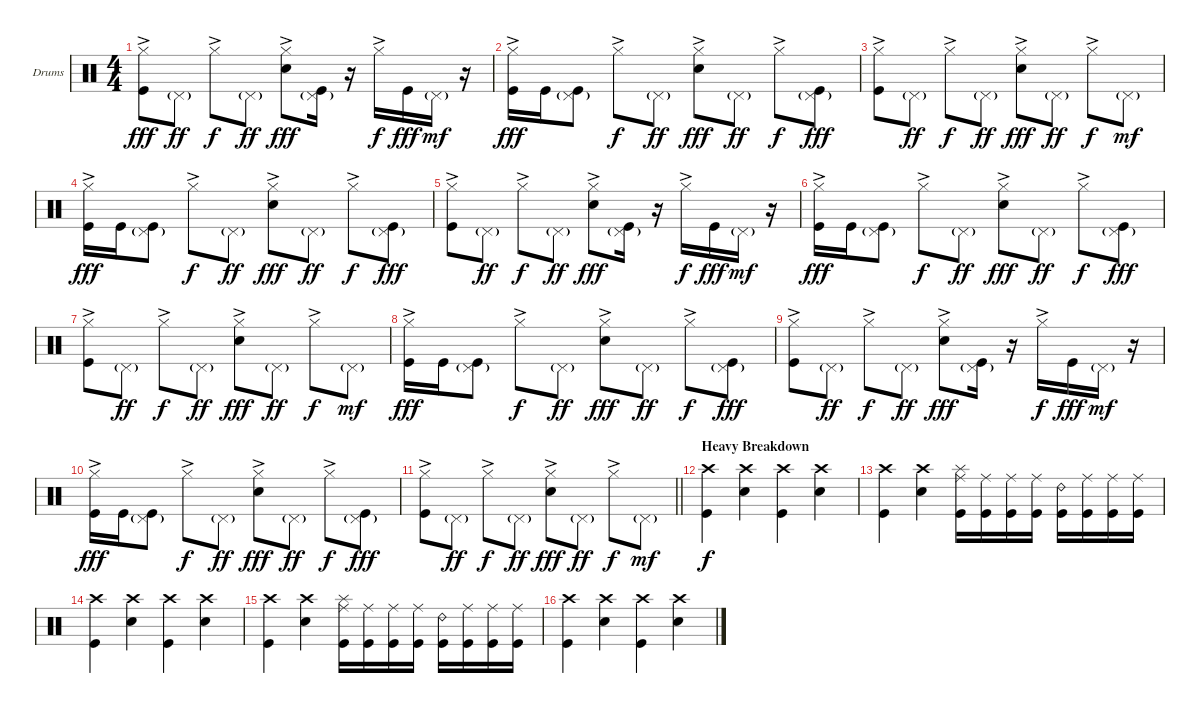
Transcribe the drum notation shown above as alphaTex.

\bracketExtendMode groupsimilarinstruments
\firstSystemTrackNameOrientation horizontal
\otherSystemsTrackNameOrientation horizontal
\track ("Percussion" "Drums") {instrument percussion}
\staff {score}
\articulation defaults
\ts (4 4)
\tempo (142 hide)
\clef neutral
\ks c
("Hi-Hat (closed)"{ac} "Kick (hit)").8{dy fff} "Pedal Hi-Hat (hit)"{g}.8{dy ff} "Hi-Hat (closed)"{ac}.8{dy f} "Pedal Hi-Hat (hit)"{g}.8{dy ff} ("Hi-Hat (closed)"{ac} "Snare (hit) 2").8{dy fff} ("Pedal Hi-Hat (hit)"{g} "Kick (hit)").16 r.16 "Hi-Hat (closed)"{ac}.16{dy f} "Kick (hit)".16{dy fff} "Pedal Hi-Hat (hit)"{g}.16{dy mf} r.16 |
("Hi-Hat (closed)"{ac} "Kick (hit)").16{dy fff} "Kick (hit)".16 ("Pedal Hi-Hat (hit)"{g} "Kick (hit)").8 "Hi-Hat (closed)"{ac}.8{dy f} "Pedal Hi-Hat (hit)"{g}.8{dy ff} ("Hi-Hat (closed)"{ac} "Snare (hit) 2").8{dy fff} "Pedal Hi-Hat (hit)"{g}.8{dy ff} "Hi-Hat (closed)"{ac}.8{dy f} ("Pedal Hi-Hat (hit)"{g} "Kick (hit)").8{dy fff} |
("Hi-Hat (closed)"{ac} "Kick (hit)").8 "Pedal Hi-Hat (hit)"{g}.8{dy ff} "Hi-Hat (closed)"{ac}.8{dy f} "Pedal Hi-Hat (hit)"{g}.8{dy ff} ("Hi-Hat (closed)"{ac} "Snare (hit) 2").8{dy fff} "Pedal Hi-Hat (hit)"{g}.8{dy ff} "Hi-Hat (closed)"{ac}.8{dy f} "Pedal Hi-Hat (hit)"{g}.8{dy mf} |
("Hi-Hat (closed)"{ac} "Kick (hit)").16{dy fff} "Kick (hit)".16 ("Pedal Hi-Hat (hit)"{g} "Kick (hit)").8 "Hi-Hat (closed)"{ac}.8{dy f} "Pedal Hi-Hat (hit)"{g}.8{dy ff} ("Hi-Hat (closed)"{ac} "Snare (hit) 2").8{dy fff} "Pedal Hi-Hat (hit)"{g}.8{dy ff} "Hi-Hat (closed)"{ac}.8{dy f} ("Pedal Hi-Hat (hit)"{g} "Kick (hit)").8{dy fff} |
("Hi-Hat (closed)"{ac} "Kick (hit)").8 "Pedal Hi-Hat (hit)"{g}.8{dy ff} "Hi-Hat (closed)"{ac}.8{dy f} "Pedal Hi-Hat (hit)"{g}.8{dy ff} ("Hi-Hat (closed)"{ac} "Snare (hit) 2").8{dy fff} ("Pedal Hi-Hat (hit)"{g} "Kick (hit)").16 r.16 "Hi-Hat (closed)"{ac}.16{dy f} "Kick (hit)".16{dy fff} "Pedal Hi-Hat (hit)"{g}.16{dy mf} r.16 |
("Hi-Hat (closed)"{ac} "Kick (hit)").16{dy fff} "Kick (hit)".16 ("Pedal Hi-Hat (hit)"{g} "Kick (hit)").8 "Hi-Hat (closed)"{ac}.8{dy f} "Pedal Hi-Hat (hit)"{g}.8{dy ff} ("Hi-Hat (closed)"{ac} "Snare (hit) 2").8{dy fff} "Pedal Hi-Hat (hit)"{g}.8{dy ff} "Hi-Hat (closed)"{ac}.8{dy f} ("Pedal Hi-Hat (hit)"{g} "Kick (hit)").8{dy fff} |
("Hi-Hat (closed)"{ac} "Kick (hit)").8 "Pedal Hi-Hat (hit)"{g}.8{dy ff} "Hi-Hat (closed)"{ac}.8{dy f} "Pedal Hi-Hat (hit)"{g}.8{dy ff} ("Hi-Hat (closed)"{ac} "Snare (hit) 2").8{dy fff} "Pedal Hi-Hat (hit)"{g}.8{dy ff} "Hi-Hat (closed)"{ac}.8{dy f} "Pedal Hi-Hat (hit)"{g}.8{dy mf} |
("Hi-Hat (closed)"{ac} "Kick (hit)").16{dy fff} "Kick (hit)".16 ("Pedal Hi-Hat (hit)"{g} "Kick (hit)").8 "Hi-Hat (closed)"{ac}.8{dy f} "Pedal Hi-Hat (hit)"{g}.8{dy ff} ("Hi-Hat (closed)"{ac} "Snare (hit) 2").8{dy fff} "Pedal Hi-Hat (hit)"{g}.8{dy ff} "Hi-Hat (closed)"{ac}.8{dy f} ("Pedal Hi-Hat (hit)"{g} "Kick (hit)").8{dy fff} |
("Hi-Hat (closed)"{ac} "Kick (hit)").8 "Pedal Hi-Hat (hit)"{g}.8{dy ff} "Hi-Hat (closed)"{ac}.8{dy f} "Pedal Hi-Hat (hit)"{g}.8{dy ff} ("Hi-Hat (closed)"{ac} "Snare (hit) 2").8{dy fff} ("Pedal Hi-Hat (hit)"{g} "Kick (hit)").16 r.16 "Hi-Hat (closed)"{ac}.16{dy f} "Kick (hit)".16{dy fff} "Pedal Hi-Hat (hit)"{g}.16{dy mf} r.16 |
("Hi-Hat (closed)"{ac} "Kick (hit)").16{dy fff} "Kick (hit)".16 ("Pedal Hi-Hat (hit)"{g} "Kick (hit)").8 "Hi-Hat (closed)"{ac}.8{dy f} "Pedal Hi-Hat (hit)"{g}.8{dy ff} ("Hi-Hat (closed)"{ac} "Snare (hit) 2").8{dy fff} "Pedal Hi-Hat (hit)"{g}.8{dy ff} "Hi-Hat (closed)"{ac}.8{dy f} ("Pedal Hi-Hat (hit)"{g} "Kick (hit)").8{dy fff} |
\barLineRight lightlight
("Hi-Hat (closed)"{ac} "Kick (hit)").8 "Pedal Hi-Hat (hit)"{g}.8{dy ff} "Hi-Hat (closed)"{ac}.8{dy f} "Pedal Hi-Hat (hit)"{g}.8{dy ff} ("Hi-Hat (closed)"{ac} "Snare (hit) 2").8{dy fff} "Pedal Hi-Hat (hit)"{g}.8{dy ff} "Hi-Hat (closed)"{ac}.8{dy f} "Pedal Hi-Hat (hit)"{g}.8{dy mf} |
\section ("" "Heavy Breakdown")
("Crash high (hit)" "Kick (hit)").4{dy f} ("Crash high (hit)" "Snare (hit) 2").4 ("Crash high (hit)" "Kick (hit)").4 ("Crash high (hit)" "Snare (hit) 2").4 |
("Crash high (hit)" "Kick (hit)").4 ("Crash high (hit)" "Snare (hit) 2").4 ("Splash (hit)" "Ride (middle)" "Kick (hit)").16 ("Ride (middle)" "Kick (hit)").16 ("Ride (middle)" "Kick (hit)").16 ("Ride (middle)" "Kick (hit)").16 ("Ride (bell) 2" "Kick (hit)").16 ("Ride (middle)" "Kick (hit)").16 ("Ride (middle)" "Kick (hit)").16 ("Ride (middle)" "Kick (hit)").16 |
("Crash high (hit)" "Kick (hit)").4 ("Crash high (hit)" "Snare (hit) 2").4 ("Crash high (hit)" "Kick (hit)").4 ("Crash high (hit)" "Snare (hit) 2").4 |
("Crash high (hit)" "Kick (hit)").4 ("Crash high (hit)" "Snare (hit) 2").4 ("Splash (hit)" "Ride (middle)" "Kick (hit)").16 ("Ride (middle)" "Kick (hit)").16 ("Ride (middle)" "Kick (hit)").16 ("Ride (middle)" "Kick (hit)").16 ("Ride (bell) 2" "Kick (hit)").16 ("Ride (middle)" "Kick (hit)").16 ("Ride (middle)" "Kick (hit)").16 ("Ride (middle)" "Kick (hit)").16 |
("Crash high (hit)" "Kick (hit)").4 ("Crash high (hit)" "Snare (hit) 2").4 ("Crash high (hit)" "Kick (hit)").4 ("Crash high (hit)" "Snare (hit) 2").4
